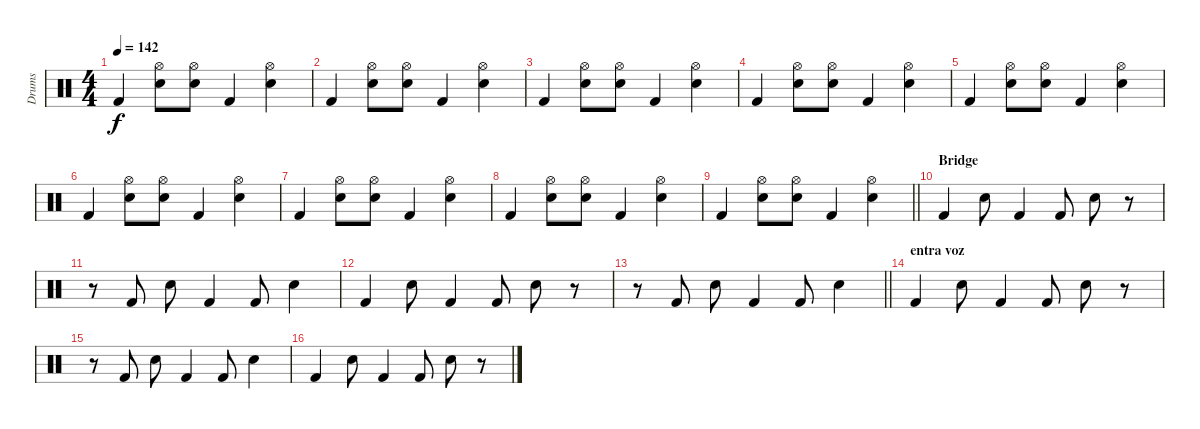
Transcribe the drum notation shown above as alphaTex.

\track ("Drums" "Drums") {instrument percussion}
\staff {score}
\articulation defaults
\ts (4 4)
\tempo 142
\clef neutral
\ks c "Kick (hit) 2".4{dy f}
("Electric Snare (hit)" "Hi-Hat (open)").8 ("Electric Snare (hit)" "Hi-Hat (open)").8 "Kick (hit) 2".4 ("Electric Snare (hit)" "Hi-Hat (open)").4 |
"Kick (hit) 2".4 ("Electric Snare (hit)" "Hi-Hat (open)").8 ("Electric Snare (hit)" "Hi-Hat (open)").8 "Kick (hit) 2".4 ("Electric Snare (hit)" "Hi-Hat (open)").4 |
"Kick (hit) 2".4 ("Electric Snare (hit)" "Hi-Hat (open)").8 ("Electric Snare (hit)" "Hi-Hat (open)").8 "Kick (hit) 2".4 ("Electric Snare (hit)" "Hi-Hat (open)").4 |
"Kick (hit) 2".4 ("Electric Snare (hit)" "Hi-Hat (open)").8 ("Electric Snare (hit)" "Hi-Hat (open)").8 "Kick (hit) 2".4 ("Electric Snare (hit)" "Hi-Hat (open)").4 |
"Kick (hit) 2".4 ("Electric Snare (hit)" "Hi-Hat (open)").8 ("Electric Snare (hit)" "Hi-Hat (open)").8 "Kick (hit) 2".4 ("Electric Snare (hit)" "Hi-Hat (open)").4 |
"Kick (hit) 2".4 ("Electric Snare (hit)" "Hi-Hat (open)").8 ("Electric Snare (hit)" "Hi-Hat (open)").8 "Kick (hit) 2".4 ("Electric Snare (hit)" "Hi-Hat (open)").4 |
"Kick (hit) 2".4 ("Electric Snare (hit)" "Hi-Hat (open)").8 ("Electric Snare (hit)" "Hi-Hat (open)").8 "Kick (hit) 2".4 ("Electric Snare (hit)" "Hi-Hat (open)").4 |
"Kick (hit) 2".4 ("Electric Snare (hit)" "Hi-Hat (open)").8 ("Electric Snare (hit)" "Hi-Hat (open)").8 "Kick (hit) 2".4 ("Electric Snare (hit)" "Hi-Hat (open)").4 |
\barLineRight lightlight "Kick (hit) 2".4
("Electric Snare (hit)" "Hi-Hat (open)").8 ("Electric Snare (hit)" "Hi-Hat (open)").8 "Kick (hit) 2".4 ("Electric Snare (hit)" "Hi-Hat (open)").4 |
\section ("" "Bridge")
"Kick (hit) 2".4 "Electric Snare (hit)".8 "Kick (hit) 2".4 "Kick (hit) 2".8 "Electric Snare (hit)".8 r.8 |
r.8 "Kick (hit) 2".8 "Electric Snare (hit)".8 "Kick (hit) 2".4 "Kick (hit) 2".8 "Electric Snare (hit)".4 |
"Kick (hit) 2".4 "Electric Snare (hit)".8 "Kick (hit) 2".4 "Kick (hit) 2".8 "Electric Snare (hit)".8 r.8 |
\barLineRight lightlight
r.8 "Kick (hit) 2".8 "Electric Snare (hit)".8 "Kick (hit) 2".4 "Kick (hit) 2".8 "Electric Snare (hit)".4 |
\section ("" "entra voz")
"Kick (hit) 2".4 "Electric Snare (hit)".8 "Kick (hit) 2".4 "Kick (hit) 2".8 "Electric Snare (hit)".8 r.8 |
r.8 "Kick (hit) 2".8 "Electric Snare (hit)".8 "Kick (hit) 2".4 "Kick (hit) 2".8 "Electric Snare (hit)".4 |
"Kick (hit) 2".4 "Electric Snare (hit)".8 "Kick (hit) 2".4 "Kick (hit) 2".8 "Electric Snare (hit)".8 r.8
